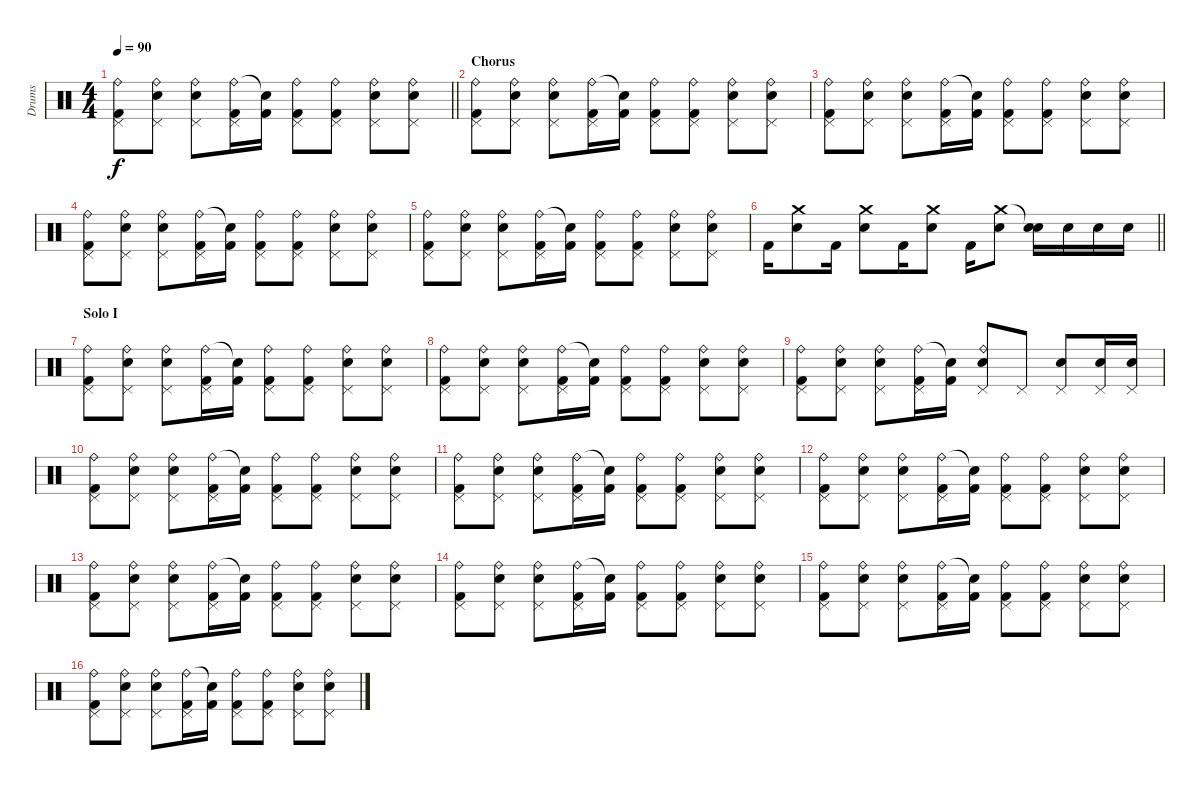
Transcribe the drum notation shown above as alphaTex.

\track ("Drums" "Drums") {instrument percussion}
\staff {score}
\articulation defaults
\ts (4 4)
\tempo 90
\clef neutral
\barLineRight lightlight
\ks c
("Ride (bell)" "Pedal Hi-Hat (hit)" "Kick (hit) 2").8{dy f} ("Ride (bell)" "Pedal Hi-Hat (hit)" "Snare (hit)").8 ("Ride (bell)" "Pedal Hi-Hat (hit)" "Electric Snare (hit)").8 ("Ride (bell)" "Pedal Hi-Hat (hit)" "Kick (hit) 2").16 ("Snare (hit)"{t} "Kick (hit) 2").16 ("Ride (bell)" "Pedal Hi-Hat (hit)" "Kick (hit) 2").8 ("Ride (bell)" "Pedal Hi-Hat (hit)" "Kick (hit) 2").8 ("Ride (bell)" "Pedal Hi-Hat (hit)" "Electric Snare (hit)").8 ("Ride (bell)" "Pedal Hi-Hat (hit)" "Snare (hit)").8 |
\section ("" "Chorus")
("Ride (bell)" "Pedal Hi-Hat (hit)" "Kick (hit) 2").8 ("Ride (bell)" "Pedal Hi-Hat (hit)" "Snare (hit)").8 ("Ride (bell)" "Pedal Hi-Hat (hit)" "Electric Snare (hit)").8 ("Ride (bell)" "Pedal Hi-Hat (hit)" "Kick (hit) 2").16 ("Snare (hit)"{t} "Kick (hit) 2").16 ("Ride (bell)" "Pedal Hi-Hat (hit)" "Kick (hit) 2").8 ("Ride (bell)" "Pedal Hi-Hat (hit)" "Kick (hit) 2").8 ("Ride (bell)" "Pedal Hi-Hat (hit)" "Electric Snare (hit)").8 ("Ride (bell)" "Pedal Hi-Hat (hit)" "Snare (hit)").8 |
("Ride (bell)" "Pedal Hi-Hat (hit)" "Kick (hit) 2").8 ("Ride (bell)" "Pedal Hi-Hat (hit)" "Snare (hit)").8 ("Ride (bell)" "Pedal Hi-Hat (hit)" "Electric Snare (hit)").8 ("Ride (bell)" "Pedal Hi-Hat (hit)" "Kick (hit) 2").16 ("Snare (hit)"{t} "Kick (hit) 2").16 ("Ride (bell)" "Pedal Hi-Hat (hit)" "Kick (hit) 2").8 ("Ride (bell)" "Pedal Hi-Hat (hit)" "Kick (hit) 2").8 ("Ride (bell)" "Pedal Hi-Hat (hit)" "Electric Snare (hit)").8 ("Ride (bell)" "Pedal Hi-Hat (hit)" "Snare (hit)").8 |
("Ride (bell)" "Pedal Hi-Hat (hit)" "Kick (hit) 2").8 ("Ride (bell)" "Pedal Hi-Hat (hit)" "Snare (hit)").8 ("Ride (bell)" "Pedal Hi-Hat (hit)" "Electric Snare (hit)").8 ("Ride (bell)" "Pedal Hi-Hat (hit)" "Kick (hit) 2").16 ("Snare (hit)"{t} "Kick (hit) 2").16 ("Ride (bell)" "Pedal Hi-Hat (hit)" "Kick (hit) 2").8 ("Ride (bell)" "Pedal Hi-Hat (hit)" "Kick (hit) 2").8 ("Ride (bell)" "Pedal Hi-Hat (hit)" "Electric Snare (hit)").8 ("Ride (bell)" "Pedal Hi-Hat (hit)" "Snare (hit)").8 |
("Ride (bell)" "Pedal Hi-Hat (hit)" "Kick (hit) 2").8 ("Ride (bell)" "Pedal Hi-Hat (hit)" "Snare (hit)").8 ("Ride (bell)" "Pedal Hi-Hat (hit)" "Electric Snare (hit)").8 ("Ride (bell)" "Pedal Hi-Hat (hit)" "Kick (hit) 2").16 ("Snare (hit)"{t} "Kick (hit) 2").16 ("Ride (bell)" "Pedal Hi-Hat (hit)" "Kick (hit) 2").8 ("Ride (bell)" "Pedal Hi-Hat (hit)" "Kick (hit) 2").8 ("Ride (bell)" "Pedal Hi-Hat (hit)" "Electric Snare (hit)").8 ("Ride (bell)" "Pedal Hi-Hat (hit)" "Snare (hit)").8 |
\barLineRight lightlight "Kick (hit) 2".16
("Crash medium (hit)" "Electric Snare (hit)").8 "Kick (hit) 2".16 ("Crash medium (hit)" "Electric Snare (hit)").8 "Kick (hit) 2".16 ("Crash medium (hit)" "Electric Snare (hit)").8 "Kick (hit) 2".16 ("Crash medium (hit)" "Electric Snare (hit)").8 ("Snare (hit)"{t} "Electric Snare (hit)").16 "Electric Snare (hit)".16 "Electric Snare (hit)".16 "Electric Snare (hit)".16 |
\section ("" "Solo I")
("Ride (bell)" "Pedal Hi-Hat (hit)" "Kick (hit) 2").8 ("Ride (bell)" "Pedal Hi-Hat (hit)" "Snare (hit)").8 ("Ride (bell)" "Pedal Hi-Hat (hit)" "Electric Snare (hit)").8 ("Ride (bell)" "Pedal Hi-Hat (hit)" "Kick (hit) 2").16 ("Snare (hit)"{t} "Kick (hit) 2").16 ("Ride (bell)" "Pedal Hi-Hat (hit)" "Kick (hit) 2").8 ("Ride (bell)" "Pedal Hi-Hat (hit)" "Kick (hit) 2").8 ("Ride (bell)" "Pedal Hi-Hat (hit)" "Electric Snare (hit)").8 ("Ride (bell)" "Pedal Hi-Hat (hit)" "Snare (hit)").8 |
("Ride (bell)" "Pedal Hi-Hat (hit)" "Kick (hit) 2").8 ("Ride (bell)" "Pedal Hi-Hat (hit)" "Snare (hit)").8 ("Ride (bell)" "Pedal Hi-Hat (hit)" "Electric Snare (hit)").8 ("Ride (bell)" "Pedal Hi-Hat (hit)" "Kick (hit) 2").16 ("Snare (hit)"{t} "Kick (hit) 2").16 ("Ride (bell)" "Pedal Hi-Hat (hit)" "Kick (hit) 2").8 ("Ride (bell)" "Pedal Hi-Hat (hit)" "Kick (hit) 2").8 ("Ride (bell)" "Pedal Hi-Hat (hit)" "Electric Snare (hit)").8 ("Ride (bell)" "Pedal Hi-Hat (hit)" "Snare (hit)").8 |
("Ride (bell)" "Pedal Hi-Hat (hit)" "Kick (hit) 2").8 ("Ride (bell)" "Pedal Hi-Hat (hit)" "Snare (hit)").8 ("Ride (bell)" "Pedal Hi-Hat (hit)" "Electric Snare (hit)").8 ("Ride (bell)" "Pedal Hi-Hat (hit)" "Kick (hit) 2").16 ("Snare (hit)"{t} "Kick (hit) 2").16 ("Ride (bell)" "Pedal Hi-Hat (hit)" "Electric Snare (hit)").8 "Pedal Hi-Hat (hit)".8 ("Pedal Hi-Hat (hit)" "Electric Snare (hit)").8 ("Pedal Hi-Hat (hit)" "Electric Snare (hit)").16 ("Pedal Hi-Hat (hit)" "Electric Snare (hit)").16 |
("Ride (bell)" "Pedal Hi-Hat (hit)" "Kick (hit) 2").8 ("Ride (bell)" "Pedal Hi-Hat (hit)" "Snare (hit)").8 ("Ride (bell)" "Pedal Hi-Hat (hit)" "Electric Snare (hit)").8 ("Ride (bell)" "Pedal Hi-Hat (hit)" "Kick (hit) 2").16 ("Snare (hit)"{t} "Kick (hit) 2").16 ("Ride (bell)" "Pedal Hi-Hat (hit)" "Kick (hit) 2").8 ("Ride (bell)" "Pedal Hi-Hat (hit)" "Kick (hit) 2").8 ("Ride (bell)" "Pedal Hi-Hat (hit)" "Electric Snare (hit)").8 ("Ride (bell)" "Pedal Hi-Hat (hit)" "Snare (hit)").8 |
("Ride (bell)" "Pedal Hi-Hat (hit)" "Kick (hit) 2").8 ("Ride (bell)" "Pedal Hi-Hat (hit)" "Snare (hit)").8 ("Ride (bell)" "Pedal Hi-Hat (hit)" "Electric Snare (hit)").8 ("Ride (bell)" "Pedal Hi-Hat (hit)" "Kick (hit) 2").16 ("Snare (hit)"{t} "Kick (hit) 2").16 ("Ride (bell)" "Pedal Hi-Hat (hit)" "Kick (hit) 2").8 ("Ride (bell)" "Pedal Hi-Hat (hit)" "Kick (hit) 2").8 ("Ride (bell)" "Pedal Hi-Hat (hit)" "Electric Snare (hit)").8 ("Ride (bell)" "Pedal Hi-Hat (hit)" "Snare (hit)").8 |
("Ride (bell)" "Pedal Hi-Hat (hit)" "Kick (hit) 2").8 ("Ride (bell)" "Pedal Hi-Hat (hit)" "Snare (hit)").8 ("Ride (bell)" "Pedal Hi-Hat (hit)" "Electric Snare (hit)").8 ("Ride (bell)" "Pedal Hi-Hat (hit)" "Kick (hit) 2").16 ("Snare (hit)"{t} "Kick (hit) 2").16 ("Ride (bell)" "Pedal Hi-Hat (hit)" "Kick (hit) 2").8 ("Ride (bell)" "Pedal Hi-Hat (hit)" "Kick (hit) 2").8 ("Ride (bell)" "Pedal Hi-Hat (hit)" "Electric Snare (hit)").8 ("Ride (bell)" "Pedal Hi-Hat (hit)" "Snare (hit)").8 |
("Ride (bell)" "Pedal Hi-Hat (hit)" "Kick (hit) 2").8 ("Ride (bell)" "Pedal Hi-Hat (hit)" "Snare (hit)").8 ("Ride (bell)" "Pedal Hi-Hat (hit)" "Electric Snare (hit)").8 ("Ride (bell)" "Pedal Hi-Hat (hit)" "Kick (hit) 2").16 ("Snare (hit)"{t} "Kick (hit) 2").16 ("Ride (bell)" "Pedal Hi-Hat (hit)" "Kick (hit) 2").8 ("Ride (bell)" "Pedal Hi-Hat (hit)" "Kick (hit) 2").8 ("Ride (bell)" "Pedal Hi-Hat (hit)" "Electric Snare (hit)").8 ("Ride (bell)" "Pedal Hi-Hat (hit)" "Snare (hit)").8 |
("Ride (bell)" "Pedal Hi-Hat (hit)" "Kick (hit) 2").8 ("Ride (bell)" "Pedal Hi-Hat (hit)" "Snare (hit)").8 ("Ride (bell)" "Pedal Hi-Hat (hit)" "Electric Snare (hit)").8 ("Ride (bell)" "Pedal Hi-Hat (hit)" "Kick (hit) 2").16 ("Snare (hit)"{t} "Kick (hit) 2").16 ("Ride (bell)" "Pedal Hi-Hat (hit)" "Kick (hit) 2").8 ("Ride (bell)" "Pedal Hi-Hat (hit)" "Kick (hit) 2").8 ("Ride (bell)" "Pedal Hi-Hat (hit)" "Electric Snare (hit)").8 ("Ride (bell)" "Pedal Hi-Hat (hit)" "Snare (hit)").8 |
("Ride (bell)" "Pedal Hi-Hat (hit)" "Kick (hit) 2").8 ("Ride (bell)" "Pedal Hi-Hat (hit)" "Snare (hit)").8 ("Ride (bell)" "Pedal Hi-Hat (hit)" "Electric Snare (hit)").8 ("Ride (bell)" "Pedal Hi-Hat (hit)" "Kick (hit) 2").16 ("Snare (hit)"{t} "Kick (hit) 2").16 ("Ride (bell)" "Pedal Hi-Hat (hit)" "Kick (hit) 2").8 ("Ride (bell)" "Pedal Hi-Hat (hit)" "Kick (hit) 2").8 ("Ride (bell)" "Pedal Hi-Hat (hit)" "Electric Snare (hit)").8 ("Ride (bell)" "Pedal Hi-Hat (hit)" "Snare (hit)").8 |
("Ride (bell)" "Pedal Hi-Hat (hit)" "Kick (hit) 2").8 ("Ride (bell)" "Pedal Hi-Hat (hit)" "Snare (hit)").8 ("Ride (bell)" "Pedal Hi-Hat (hit)" "Electric Snare (hit)").8 ("Ride (bell)" "Pedal Hi-Hat (hit)" "Kick (hit) 2").16 ("Snare (hit)"{t} "Kick (hit) 2").16 ("Ride (bell)" "Pedal Hi-Hat (hit)" "Kick (hit) 2").8 ("Ride (bell)" "Pedal Hi-Hat (hit)" "Kick (hit) 2").8 ("Ride (bell)" "Pedal Hi-Hat (hit)" "Electric Snare (hit)").8 ("Ride (bell)" "Pedal Hi-Hat (hit)" "Snare (hit)").8
